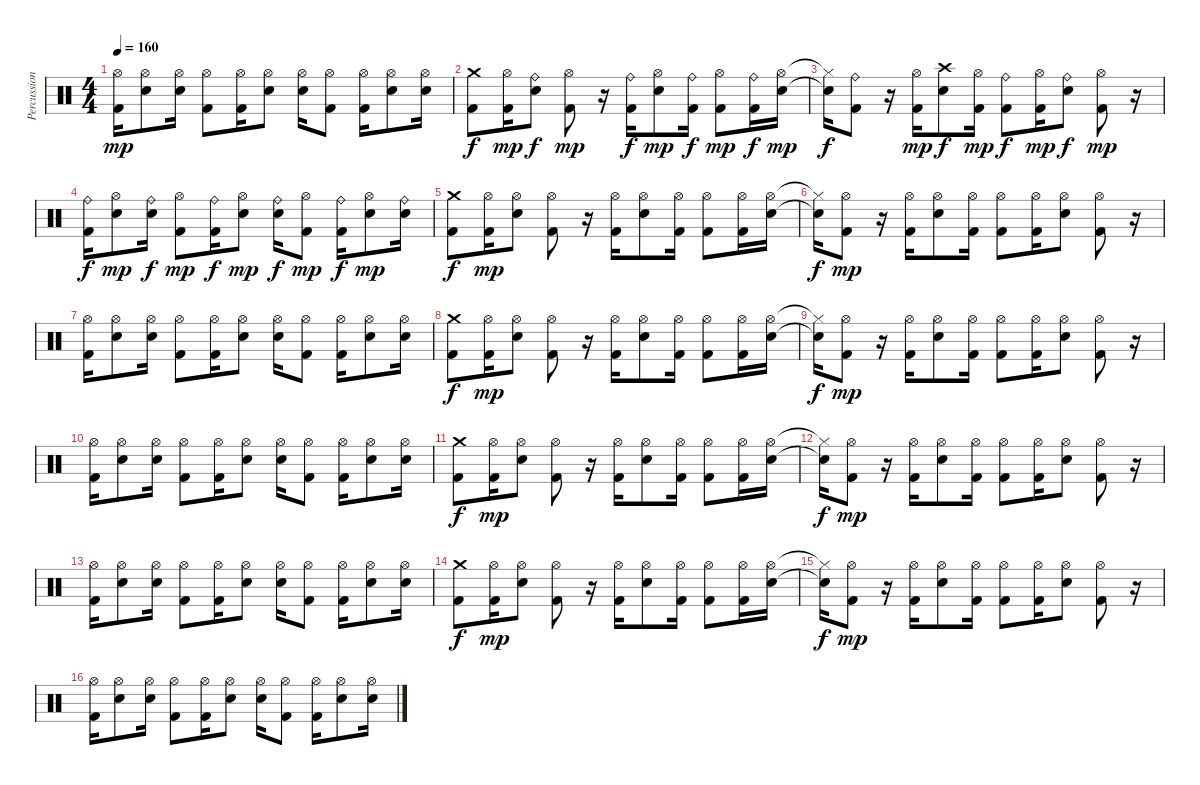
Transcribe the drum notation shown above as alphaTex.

\track ("Percussions" "Percussion") {instrument percussion}
\staff {score}
\articulation defaults
\ts (4 4)
\tempo 160
\clef neutral
\ks c
("Hi-Hat (open)" "Kick (hit) 2").16{dy mp} ("Hi-Hat (open)" "Electric Snare (hit)").8 ("Hi-Hat (open)" "Electric Snare (hit)").16 ("Hi-Hat (open)" "Kick (hit) 2").8 ("Hi-Hat (open)" "Kick (hit) 2").16 ("Hi-Hat (open)" "Electric Snare (hit)").8 ("Hi-Hat (open)" "Electric Snare (hit)").16 ("Hi-Hat (open)" "Kick (hit) 2").8 ("Hi-Hat (open)" "Kick (hit) 2").16 ("Hi-Hat (open)" "Electric Snare (hit)").8 ("Hi-Hat (open)" "Electric Snare (hit)").16 |
("Crash medium (hit)" "Kick (hit) 2").8{dy f} ("Hi-Hat (open)" "Kick (hit) 2").16{dy mp} ("Ride (bell)" "Electric Snare (hit)").8{dy f} ("Hi-Hat (open)" "Kick (hit) 2").8{dy mp} r.16 ("Ride (bell)" "Kick (hit) 2").16{dy f} ("Hi-Hat (open)" "Electric Snare (hit)").8{dy mp} ("Ride (bell)" "Kick (hit) 2").16{dy f} ("Hi-Hat (open)" "Kick (hit) 2").8{dy mp} ("Ride (bell)" "Kick (hit) 2").16{dy f} ("Hi-Hat (open)" "Electric Snare (hit)").16{dy mp} |
("Hi-Hat (closed)"{t} "Electric Snare (hit)"{t}).16{dy f} ("Ride (bell)" "Kick (hit) 2").8 r.16 ("Hi-Hat (open)" "Kick (hit) 2").16{dy mp} ("Crash high (hit)" "Electric Snare (hit)").8{dy f} ("Hi-Hat (open)" "Kick (hit) 2").16{dy mp} ("Ride (bell)" "Kick (hit) 2").8{dy f} ("Hi-Hat (open)" "Kick (hit) 2").16{dy mp} ("Ride (bell)" "Electric Snare (hit)").8{dy f} ("Hi-Hat (open)" "Kick (hit) 2").8{dy mp} r.16 |
("Ride (bell)" "Kick (hit) 2").16{dy f} ("Hi-Hat (open)" "Electric Snare (hit)").8{dy mp} ("Ride (bell)" "Electric Snare (hit)").16{dy f} ("Hi-Hat (open)" "Kick (hit) 2").8{dy mp} ("Ride (bell)" "Kick (hit) 2").16{dy f} ("Hi-Hat (open)" "Electric Snare (hit)").8{dy mp} ("Ride (bell)" "Electric Snare (hit)").16{dy f} ("Hi-Hat (open)" "Kick (hit) 2").8{dy mp} ("Ride (bell)" "Kick (hit) 2").16{dy f} ("Hi-Hat (open)" "Electric Snare (hit)").8{dy mp} ("Ride (bell)" "Electric Snare (hit)").16 |
("Crash medium (hit)" "Kick (hit) 2").8{dy f} ("Hi-Hat (open)" "Kick (hit) 2").16{dy mp} ("Hi-Hat (open)" "Electric Snare (hit)").8 ("Hi-Hat (open)" "Kick (hit) 2").8 r.16 ("Hi-Hat (open)" "Kick (hit) 2").16 ("Hi-Hat (open)" "Electric Snare (hit)").8 ("Hi-Hat (open)" "Kick (hit) 2").16 ("Hi-Hat (open)" "Kick (hit) 2").8 ("Hi-Hat (open)" "Kick (hit) 2").16 ("Hi-Hat (open)" "Electric Snare (hit)").16 |
("Hi-Hat (closed)"{t} "Electric Snare (hit)"{t}).16{dy f} ("Hi-Hat (open)" "Kick (hit) 2").8{dy mp} r.16 ("Hi-Hat (open)" "Kick (hit) 2").16 ("Hi-Hat (open)" "Electric Snare (hit)").8 ("Hi-Hat (open)" "Kick (hit) 2").16 ("Hi-Hat (open)" "Kick (hit) 2").8 ("Hi-Hat (open)" "Kick (hit) 2").16 ("Hi-Hat (open)" "Electric Snare (hit)").8 ("Hi-Hat (open)" "Kick (hit) 2").8 r.16 |
("Hi-Hat (open)" "Kick (hit) 2").16 ("Hi-Hat (open)" "Electric Snare (hit)").8 ("Hi-Hat (open)" "Electric Snare (hit)").16 ("Hi-Hat (open)" "Kick (hit) 2").8 ("Hi-Hat (open)" "Kick (hit) 2").16 ("Hi-Hat (open)" "Electric Snare (hit)").8 ("Hi-Hat (open)" "Electric Snare (hit)").16 ("Hi-Hat (open)" "Kick (hit) 2").8 ("Hi-Hat (open)" "Kick (hit) 2").16 ("Hi-Hat (open)" "Electric Snare (hit)").8 ("Hi-Hat (open)" "Electric Snare (hit)").16 |
("Crash medium (hit)" "Kick (hit) 2").8{dy f} ("Hi-Hat (open)" "Kick (hit) 2").16{dy mp} ("Hi-Hat (open)" "Electric Snare (hit)").8 ("Hi-Hat (open)" "Kick (hit) 2").8 r.16 ("Hi-Hat (open)" "Kick (hit) 2").16 ("Hi-Hat (open)" "Electric Snare (hit)").8 ("Hi-Hat (open)" "Kick (hit) 2").16 ("Hi-Hat (open)" "Kick (hit) 2").8 ("Hi-Hat (open)" "Kick (hit) 2").16 ("Hi-Hat (open)" "Electric Snare (hit)").16 |
("Hi-Hat (closed)"{t} "Electric Snare (hit)"{t}).16{dy f} ("Hi-Hat (open)" "Kick (hit) 2").8{dy mp} r.16 ("Hi-Hat (open)" "Kick (hit) 2").16 ("Hi-Hat (open)" "Electric Snare (hit)").8 ("Hi-Hat (open)" "Kick (hit) 2").16 ("Hi-Hat (open)" "Kick (hit) 2").8 ("Hi-Hat (open)" "Kick (hit) 2").16 ("Hi-Hat (open)" "Electric Snare (hit)").8 ("Hi-Hat (open)" "Kick (hit) 2").8 r.16 |
("Hi-Hat (open)" "Kick (hit) 2").16 ("Hi-Hat (open)" "Electric Snare (hit)").8 ("Hi-Hat (open)" "Electric Snare (hit)").16 ("Hi-Hat (open)" "Kick (hit) 2").8 ("Hi-Hat (open)" "Kick (hit) 2").16 ("Hi-Hat (open)" "Electric Snare (hit)").8 ("Hi-Hat (open)" "Electric Snare (hit)").16 ("Hi-Hat (open)" "Kick (hit) 2").8 ("Hi-Hat (open)" "Kick (hit) 2").16 ("Hi-Hat (open)" "Electric Snare (hit)").8 ("Hi-Hat (open)" "Electric Snare (hit)").16 |
("Crash medium (hit)" "Kick (hit) 2").8{dy f} ("Hi-Hat (open)" "Kick (hit) 2").16{dy mp} ("Hi-Hat (open)" "Electric Snare (hit)").8 ("Hi-Hat (open)" "Kick (hit) 2").8 r.16 ("Hi-Hat (open)" "Kick (hit) 2").16 ("Hi-Hat (open)" "Electric Snare (hit)").8 ("Hi-Hat (open)" "Kick (hit) 2").16 ("Hi-Hat (open)" "Kick (hit) 2").8 ("Hi-Hat (open)" "Kick (hit) 2").16 ("Hi-Hat (open)" "Electric Snare (hit)").16 |
("Hi-Hat (closed)"{t} "Electric Snare (hit)"{t}).16{dy f} ("Hi-Hat (open)" "Kick (hit) 2").8{dy mp} r.16 ("Hi-Hat (open)" "Kick (hit) 2").16 ("Hi-Hat (open)" "Electric Snare (hit)").8 ("Hi-Hat (open)" "Kick (hit) 2").16 ("Hi-Hat (open)" "Kick (hit) 2").8 ("Hi-Hat (open)" "Kick (hit) 2").16 ("Hi-Hat (open)" "Electric Snare (hit)").8 ("Hi-Hat (open)" "Kick (hit) 2").8 r.16 |
("Hi-Hat (open)" "Kick (hit) 2").16 ("Hi-Hat (open)" "Electric Snare (hit)").8 ("Hi-Hat (open)" "Electric Snare (hit)").16 ("Hi-Hat (open)" "Kick (hit) 2").8 ("Hi-Hat (open)" "Kick (hit) 2").16 ("Hi-Hat (open)" "Electric Snare (hit)").8 ("Hi-Hat (open)" "Electric Snare (hit)").16 ("Hi-Hat (open)" "Kick (hit) 2").8 ("Hi-Hat (open)" "Kick (hit) 2").16 ("Hi-Hat (open)" "Electric Snare (hit)").8 ("Hi-Hat (open)" "Electric Snare (hit)").16 |
("Crash medium (hit)" "Kick (hit) 2").8{dy f} ("Hi-Hat (open)" "Kick (hit) 2").16{dy mp} ("Hi-Hat (open)" "Electric Snare (hit)").8 ("Hi-Hat (open)" "Kick (hit) 2").8 r.16 ("Hi-Hat (open)" "Kick (hit) 2").16 ("Hi-Hat (open)" "Electric Snare (hit)").8 ("Hi-Hat (open)" "Kick (hit) 2").16 ("Hi-Hat (open)" "Kick (hit) 2").8 ("Hi-Hat (open)" "Kick (hit) 2").16 ("Hi-Hat (open)" "Electric Snare (hit)").16 |
("Hi-Hat (closed)"{t} "Electric Snare (hit)"{t}).16{dy f} ("Hi-Hat (open)" "Kick (hit) 2").8{dy mp} r.16 ("Hi-Hat (open)" "Kick (hit) 2").16 ("Hi-Hat (open)" "Electric Snare (hit)").8 ("Hi-Hat (open)" "Kick (hit) 2").16 ("Hi-Hat (open)" "Kick (hit) 2").8 ("Hi-Hat (open)" "Kick (hit) 2").16 ("Hi-Hat (open)" "Electric Snare (hit)").8 ("Hi-Hat (open)" "Kick (hit) 2").8 r.16 |
("Hi-Hat (open)" "Kick (hit) 2").16 ("Hi-Hat (open)" "Electric Snare (hit)").8 ("Hi-Hat (open)" "Electric Snare (hit)").16 ("Hi-Hat (open)" "Kick (hit) 2").8 ("Hi-Hat (open)" "Kick (hit) 2").16 ("Hi-Hat (open)" "Electric Snare (hit)").8 ("Hi-Hat (open)" "Electric Snare (hit)").16 ("Hi-Hat (open)" "Kick (hit) 2").8 ("Hi-Hat (open)" "Kick (hit) 2").16 ("Hi-Hat (open)" "Electric Snare (hit)").8 ("Hi-Hat (open)" "Electric Snare (hit)").16
